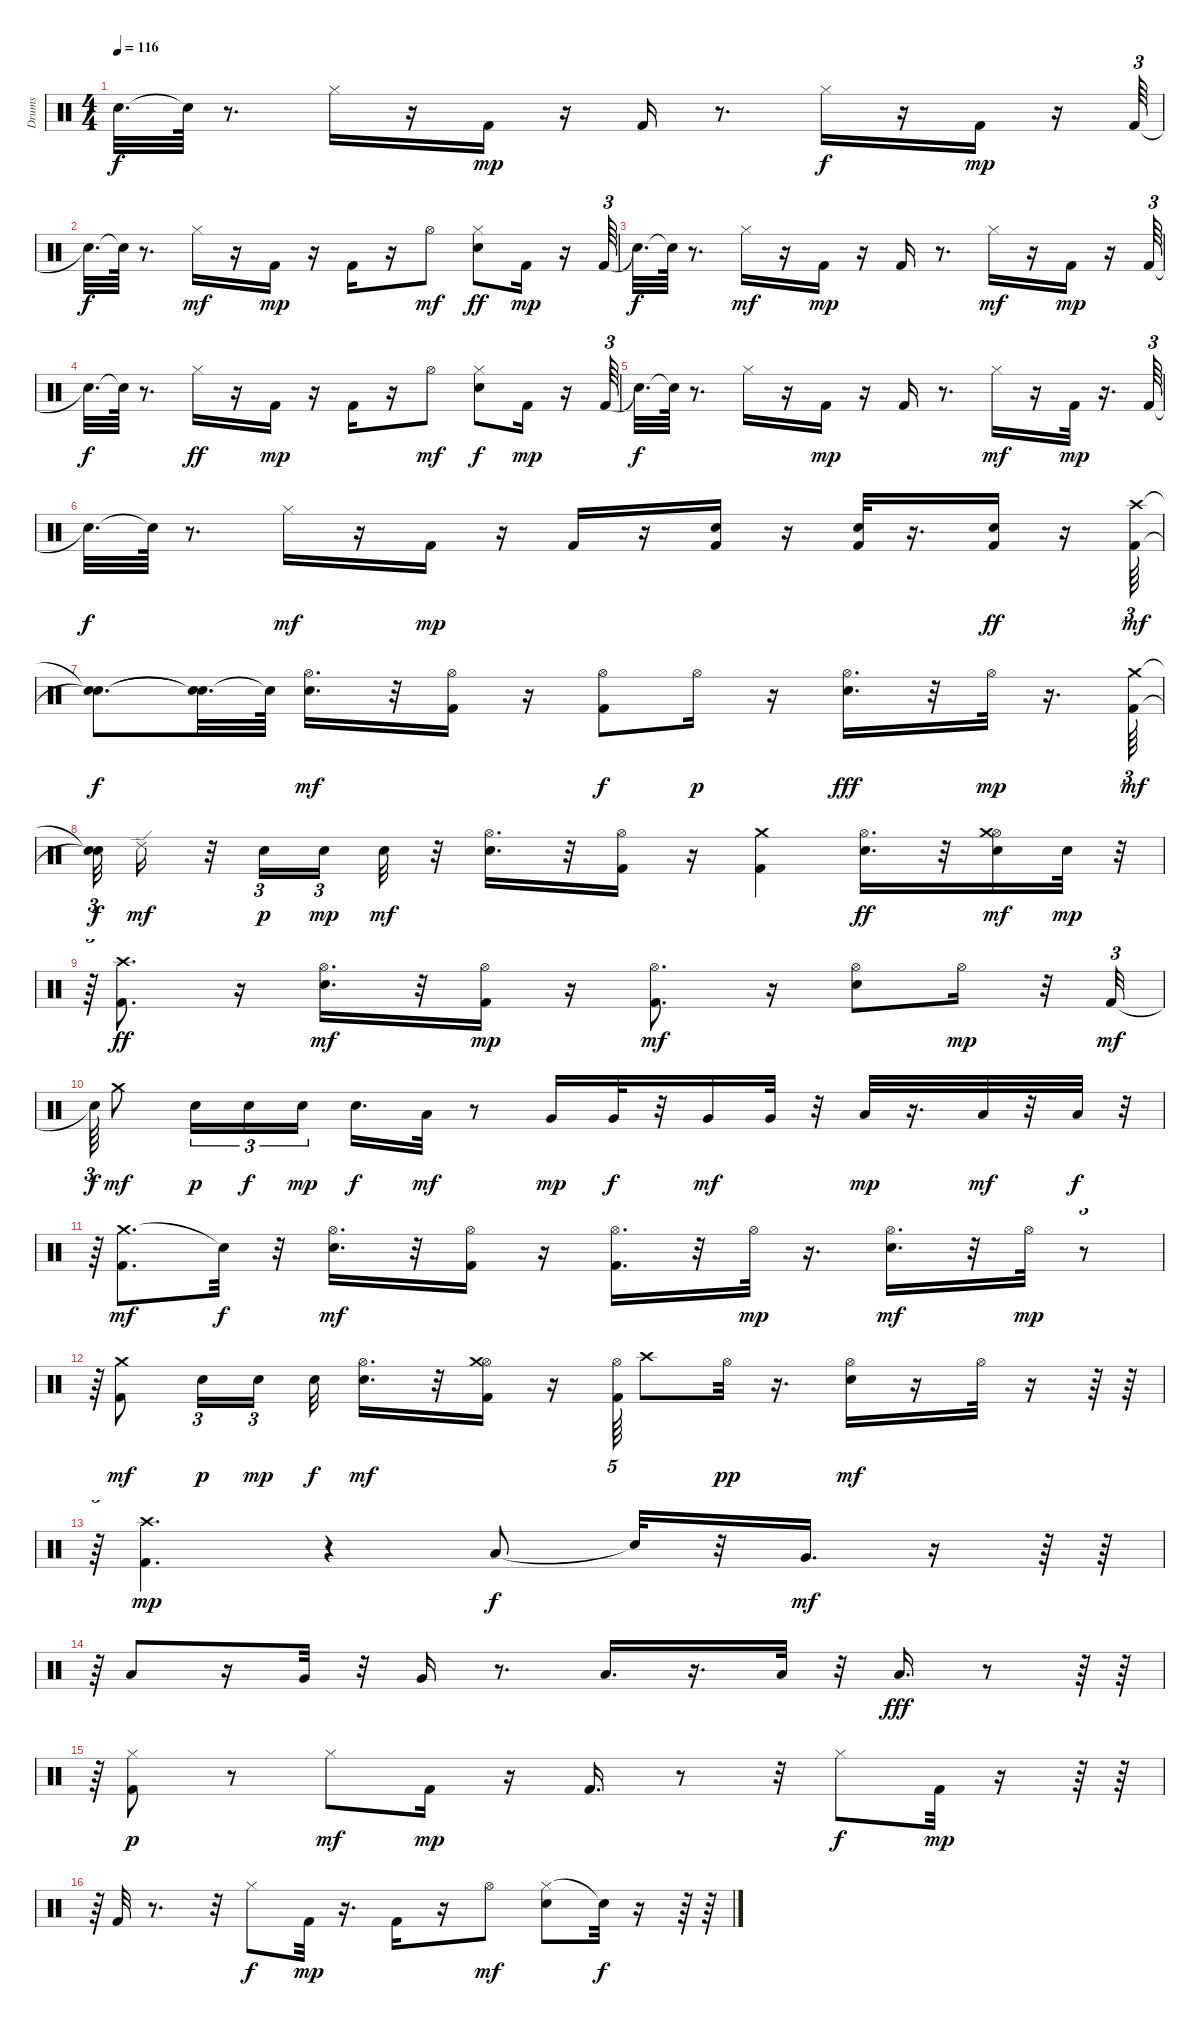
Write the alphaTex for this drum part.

\track ("Drums" "Drums") {instrument percussion}
\staff {score}
\articulation defaults
\ts (4 4)
\tempo 116
\clef neutral
\ks c "Snare (hit)"{t}.32{d dy f} "Snare (hit)"{t}.64
r.8{d} "Hi-Hat (closed)".16 r.16 "Kick (hit) 2".16{dy mp} r.16 "Kick (hit) 2".16 r.8{d} "Hi-Hat (closed)".16{dy f} r.16 "Kick (hit) 2".16{dy mp} r.16 "Kick (hit) 2".64{tu (3 2)} |
"Snare (hit)"{t}.32{d dy f} "Snare (hit)"{t}.64 r.8{d} "Hi-Hat (closed)".16{dy mf} r.16 "Kick (hit) 2".16{dy mp} r.16 "Kick (hit) 2".16 r.16 "Hi-Hat (open)".8{dy mf} ("Hi-Hat (closed)" "Electric Snare (hit)").8{dy ff} "Kick (hit) 2".16{dy mp} r.16 "Kick (hit) 2".64{tu (3 2)} |
"Snare (hit)"{t}.32{d dy f} "Snare (hit)"{t}.64 r.8{d} "Hi-Hat (closed)".16{dy mf} r.16 "Kick (hit) 2".16{dy mp} r.16 "Kick (hit) 2".16 r.8{d} "Hi-Hat (closed)".16{dy mf} r.16 "Kick (hit) 2".16{dy mp} r.16 "Kick (hit) 2".64{tu (3 2)} |
"Snare (hit)"{t}.32{d dy f} "Snare (hit)"{t}.64 r.8{d} "Hi-Hat (closed)".16{dy ff} r.16 "Kick (hit) 2".16{dy mp} r.16 "Kick (hit) 2".16 r.16 "Hi-Hat (open)".8{dy mf} ("Hi-Hat (closed)" "Electric Snare (hit)").8{dy f} "Kick (hit) 2".16{dy mp} r.16 "Kick (hit) 2".64{tu (3 2)} |
"Snare (hit)"{t}.32{d dy f} "Snare (hit)"{t}.64 r.8{d} "Hi-Hat (closed)".16 r.16 "Kick (hit) 2".16{dy mp} r.16 "Kick (hit) 2".16 r.8{d} "Hi-Hat (closed)".16{dy mf} r.16 "Kick (hit) 2".32{dy mp} r.16{d} "Kick (hit) 2".64{tu (3 2)} |
"Snare (hit)"{t}.32{d dy f} "Snare (hit)"{t}.64 r.8{d} "Hi-Hat (closed)".16{dy mf} r.16 "Kick (hit) 2".16{dy mp} r.16 "Kick (hit) 2".16 r.16 ("Electric Snare (hit)" "Kick (hit) 2").16 r.16 ("Electric Snare (hit)" "Kick (hit) 2").32 r.16{d} ("Electric Snare (hit)" "Kick (hit) 2").16{dy ff} r.16 ("Crash high (hit)" "Kick (hit) 2").64{tu (3 2) dy mf} |
("Snare (hit)"{t} "Snare (hit)"{t}).8{d dy f} ("Snare (hit)"{t} "Snare (hit)"{t}).32{d} "Snare (hit)"{t}.64 ("Hi-Hat (open)" "Electric Snare (hit)").16{d dy mf} r.32 ("Hi-Hat (open)" "Kick (hit) 2").16 r.16 ("Hi-Hat (open)" "Kick (hit) 2").8{dy f} "Hi-Hat (open)".16{dy p} r.16 ("Electric Snare (hit)" "Hi-Hat (open)").16{d dy fff} r.32 "Hi-Hat (open)".32{dy mp} r.16{d} ("Kick (hit) 2" "Crash medium (hit)").64{tu (3 2) dy mf} |
("Snare (hit)"{t} "Snare (hit)"{t}).32{tu (3 2) dy f} "Ride (edge) 2".16{dy mf} r.32 "Electric Snare (hit)".16{tu (3 2) dy p} "Electric Snare (hit)".16{tu (3 2) dy mp beam splitsecondary} "Electric Snare (hit)".32{dy mf} r.32 ("Hi-Hat (open)" "Electric Snare (hit)").16{d} r.32 ("Hi-Hat (open)" "Kick (hit) 2").16 r.16 ("Crash medium (hit)" "Kick (hit) 2").4 ("Hi-Hat (open)" "Electric Snare (hit)").16{d dy ff} r.32 ("Hi-Hat (open)" "Electric Snare (hit)" "Crash medium (hit)").16{dy mf} "Electric Snare (hit)".32{dy mp} r.32{tu (3 2)} |
r.64{tu (3 2)} ("Crash high (hit)" "Kick (hit) 2").8{d dy ff} r.16 ("Electric Snare (hit)" "Hi-Hat (open)").16{d dy mf} r.32 ("Kick (hit) 2" "Hi-Hat (open)").16{dy mp} r.16 ("Kick (hit) 2" "Hi-Hat (open)").8{d dy mf} r.16 ("Electric Snare (hit)" "Hi-Hat (open)").8 "Hi-Hat (open)".16{dy mp} r.32 "Kick (hit) 2".32{tu (3 2) dy mf} |
"Snare (hit)"{t}.64{tu (3 2) dy f} "Crash medium (hit)".8{dy mf} "Electric Snare (hit)".16{tu (3 2) dy p} "Electric Snare (hit)".16{tu (3 2) dy f} "Electric Snare (hit)".16{tu (3 2) dy mp} "Electric Snare (hit)".16{d dy f} "Low Tom (hit)".32{dy mf} r.8 "Very Low Tom (hit)".16{dy mp} "Very Low Tom (hit)".32{dy f} r.32 "Very Low Tom (hit)".16{dy mf} "Very Low Tom (hit)".32 r.32 "Low Floor Tom (hit)".32{dy mp} r.16{d} "Low Floor Tom (hit)".32{dy mf} r.32 "Low Floor Tom (hit)".32{dy f} r.32{tu (3 2)} |
r.64{tu (3 2)} ("Crash medium (hit)" "Kick (hit) 2").8{d dy mf} "Snare (hit)"{t}.32{dy f} r.32 ("Electric Snare (hit)" "Hi-Hat (open)").16{d dy mf} r.32 ("Hi-Hat (open)" "Kick (hit) 2").16 r.16 ("Hi-Hat (open)" "Kick (hit) 2").16{d} r.32 "Hi-Hat (open)".32{dy mp} r.16{d} ("Hi-Hat (open)" "Electric Snare (hit)").16{d dy mf} r.32 "Hi-Hat (open)".32{dy mp} r.8{tu (3 2)} |
r.64{tu (3 2)} ("Kick (hit) 2" "Crash medium (hit)").8{dy mf} "Electric Snare (hit)".16{tu (3 2) dy p} "Electric Snare (hit)".16{tu (3 2) dy mp beam splitsecondary} "Electric Snare (hit)".32{dy f} ("Hi-Hat (open)" "Electric Snare (hit)").16{d dy mf} r.32 ("Hi-Hat (open)" "Kick (hit) 2" "Crash medium (hit)").16 r.16 ("Hi-Hat (open)" "Kick (hit) 2").64{tu (5 4)} "Crash high (hit)".8 "Hi-Hat (open)".32{dy pp} r.16{d} ("Hi-Hat (open)" "Electric Snare (hit)").16{dy mf} r.16 "Hi-Hat (open)".32 r.16 r.64 r.64 |
r.64{tu (5 4)} ("Kick (hit) 2" "Crash high (hit)").4{d dy mp} r.4 "Low Tom (hit)".8{dy f} "Snare (hit)"{t}.32 r.32 "Very Low Tom (hit)".16{d dy mf} r.16 r.64 r.64 |
r.64{tu (5 4)} "Low Floor Tom (hit)".8 r.16 "Very Low Tom (hit)".32 r.32 "Very Low Tom (hit)".16 r.8{d} "Low Floor Tom (hit)".16{d} r.16{d} "Low Floor Tom (hit)".32 r.32 "Low Floor Tom (hit)".16{d dy fff} r.8 r.64 r.64 |
r.64{tu (5 4)} ("Kick (hit) 2" "Hi-Hat (closed)").8{dy p} r.8 "Hi-Hat (closed)".8{dy mf} "Kick (hit) 2".16{dy mp} r.16 "Kick (hit) 2".16{d} r.8 r.32 "Hi-Hat (closed)".8{dy f} "Kick (hit) 2".32{dy mp} r.16 r.64 r.64 |
r.64{tu (5 4)} "Kick (hit) 2".32 r.8{d} r.32 "Hi-Hat (closed)".8{dy f} "Kick (hit) 2".32{dy mp} r.16{d} "Kick (hit) 2".16 r.16 "Hi-Hat (open)".8{dy mf} ("Hi-Hat (closed)" "Electric Snare (hit)").8 "Snare (hit)"{t}.32{dy f} r.16 r.64 r.64
